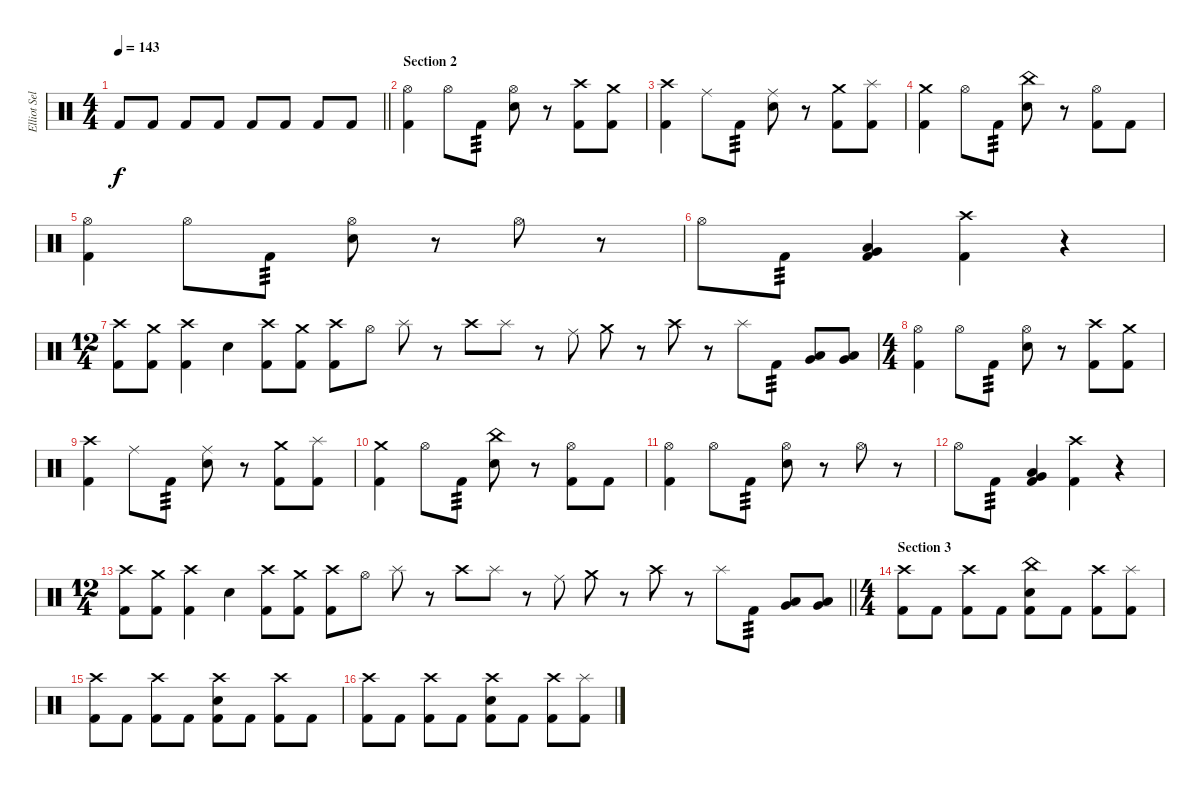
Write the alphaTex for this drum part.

\track ("Elliot Sellers" "Elliot Sel") {instrument percussion}
\staff {score}
\articulation defaults
\ts (4 4)
\tempo 143
\clef neutral
\barLineRight lightlight
\ks c "Kick (hit) 2".8{dy f} "Kick (hit) 2".8 "Kick (hit) 2".8 "Kick (hit) 2".8 "Kick (hit) 2".8 "Kick (hit) 2".8 "Kick (hit) 2".8 "Kick (hit) 2".8
|
\section ("" "Section 2")
("Hi-Hat (open)" "Kick (hit) 2").4 "Hi-Hat (open)".8 "Kick (hit) 2".8{tp 3} ("Hi-Hat (open)" "Electric Snare (hit)").8 r.8 ("Crash high (hit)" "Kick (hit) 2").8 ("Crash medium (hit)" "Kick (hit) 2").8 |
("Crash high (hit)" "Kick (hit) 2").4 "Ride (middle)".8 "Kick (hit) 2".8{tp 3} ("Ride (middle)" "Electric Snare (hit)").8 r.8 ("Crash medium (hit)" "Kick (hit) 2").8 ("Splash (hit)" "Kick (hit) 2").8 |
("Crash medium (hit)" "Kick (hit) 2").4 "Hi-Hat (open)".8 "Kick (hit) 2".8{tp 3} ("China (hit)" "Electric Snare (hit)").8 r.8 ("Hi-Hat (open)" "Kick (hit) 2").8 "Kick (hit) 2".8 |
("Hi-Hat (open)" "Kick (hit) 2").4 "Hi-Hat (open)".8 "Kick (hit) 2".8{tp 3} ("Hi-Hat (open)" "Electric Snare (hit)").8 r.8 "Hi-Hat (open)".8 r.8 |
"Hi-Hat (open)".8 "Kick (hit) 2".8{tp 3} ("Very Low Tom (hit)" "Low Tom (hit)" "Kick (hit) 2").4 ("Crash high (hit)" "Kick (hit) 2").4 r.4 |
\ts (12 4)
("Crash high (hit)" "Kick (hit) 2").8 ("Crash medium (hit)" "Kick (hit) 2").8 ("Crash high (hit)" "Kick (hit) 2").4 "Electric Snare (hit)".4 ("Crash high (hit)" "Kick (hit) 2").8 ("Crash medium (hit)" "Kick (hit) 2").8 ("Crash high (hit)" "Kick (hit) 2").8 "Hi-Hat (open)".8 "Splash (hit)".8 r.8 "Crash high (hit)".8 "Splash (hit)".8 r.8 "Ride (middle)".8 "Crash medium (hit)".8 r.8 "Crash high (hit)".8 r.8 "Splash (hit)".8 "Kick (hit) 2".8{tp 3} ("Low Tom (hit)" "Very Low Tom (hit)").8 ("Low Tom (hit)" "Very Low Tom (hit)").8 |
\ts (4 4)
("Hi-Hat (open)" "Kick (hit) 2").4 "Hi-Hat (open)".8 "Kick (hit) 2".8{tp 3} ("Hi-Hat (open)" "Electric Snare (hit)").8 r.8 ("Crash high (hit)" "Kick (hit) 2").8 ("Crash medium (hit)" "Kick (hit) 2").8 |
("Crash high (hit)" "Kick (hit) 2").4 "Ride (middle)".8 "Kick (hit) 2".8{tp 3} ("Ride (middle)" "Electric Snare (hit)").8 r.8 ("Crash medium (hit)" "Kick (hit) 2").8 ("Splash (hit)" "Kick (hit) 2").8 |
("Crash medium (hit)" "Kick (hit) 2").4 "Hi-Hat (open)".8 "Kick (hit) 2".8{tp 3} ("China (hit)" "Electric Snare (hit)").8 r.8 ("Hi-Hat (open)" "Kick (hit) 2").8 "Kick (hit) 2".8 |
("Hi-Hat (open)" "Kick (hit) 2").4 "Hi-Hat (open)".8 "Kick (hit) 2".8{tp 3} ("Hi-Hat (open)" "Electric Snare (hit)").8 r.8 "Hi-Hat (open)".8 r.8 |
"Hi-Hat (open)".8 "Kick (hit) 2".8{tp 3} ("Very Low Tom (hit)" "Low Tom (hit)" "Kick (hit) 2").4 ("Crash high (hit)" "Kick (hit) 2").4 r.4 |
\ts (12 4)
\barLineRight lightlight
("Crash high (hit)" "Kick (hit) 2").8 ("Crash medium (hit)" "Kick (hit) 2").8 ("Crash high (hit)" "Kick (hit) 2").4 "Electric Snare (hit)".4 ("Crash high (hit)" "Kick (hit) 2").8 ("Crash medium (hit)" "Kick (hit) 2").8 ("Crash high (hit)" "Kick (hit) 2").8 "Hi-Hat (open)".8 "Splash (hit)".8 r.8 "Crash high (hit)".8 "Splash (hit)".8 r.8 "Ride (middle)".8 "Crash medium (hit)".8 r.8 "Crash high (hit)".8 r.8 "Splash (hit)".8 "Kick (hit) 2".8{tp 3} ("Low Tom (hit)" "Very Low Tom (hit)").8 ("Low Tom (hit)" "Very Low Tom (hit)").8 |
\ts (4 4)
\section ("" "Section 3")
("Crash high (hit)" "Kick (hit) 2").8 "Kick (hit) 2".8 ("Crash high (hit)" "Kick (hit) 2").8 "Kick (hit) 2".8 ("Electric Snare (hit)" "China (hit)" "Kick (hit) 2").8 "Kick (hit) 2".8 ("Crash high (hit)" "Kick (hit) 2").8 ("Splash (hit)" "Kick (hit) 2").8 |
("Crash high (hit)" "Kick (hit) 2").8 "Kick (hit) 2".8 ("Crash high (hit)" "Kick (hit) 2").8 "Kick (hit) 2".8 ("Electric Snare (hit)" "Crash high (hit)" "Kick (hit) 2").8 "Kick (hit) 2".8 ("Crash high (hit)" "Kick (hit) 2").8 "Kick (hit) 2".8 |
("Crash high (hit)" "Kick (hit) 2").8 "Kick (hit) 2".8 ("Crash high (hit)" "Kick (hit) 2").8 "Kick (hit) 2".8 ("Electric Snare (hit)" "Crash high (hit)" "Kick (hit) 2").8 "Kick (hit) 2".8 ("Crash high (hit)" "Kick (hit) 2").8 ("Splash (hit)" "Kick (hit) 2").8
